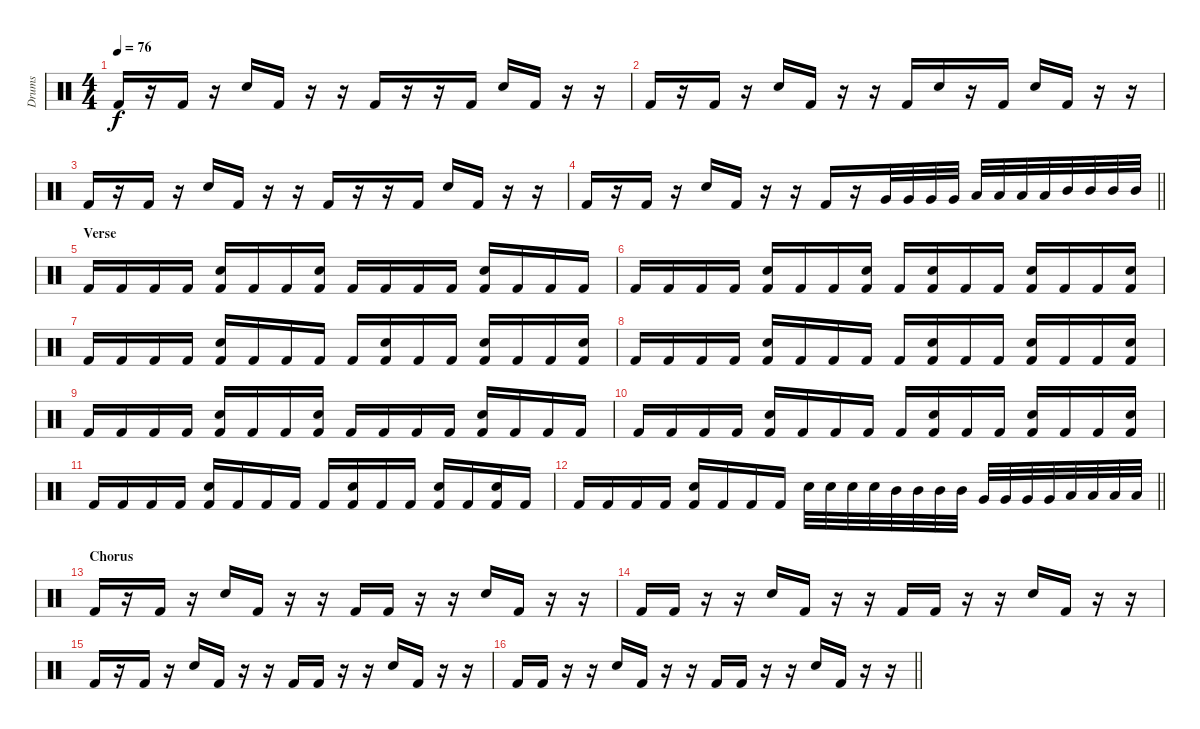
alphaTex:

\track ("Drums" "Drums") {instrument percussion}
\staff {score}
\articulation defaults
\ts (4 4)
\tempo 76
\clef neutral
\ks c "Kick (hit) 2".16{dy f}
r.16 "Kick (hit) 2".16 r.16 "Electric Snare (hit)".16 "Kick (hit) 2".16 r.16 r.16 "Kick (hit) 2".16 r.16 r.16 "Kick (hit) 2".16 "Electric Snare (hit)".16 "Kick (hit) 2".16 r.16 r.16 |
"Kick (hit) 2".16 r.16 "Kick (hit) 2".16 r.16 "Electric Snare (hit)".16 "Kick (hit) 2".16 r.16 r.16 "Kick (hit) 2".16 "Electric Snare (hit)".16 r.16 "Kick (hit) 2".16 "Electric Snare (hit)".16 "Kick (hit) 2".16 r.16 r.16 |
"Kick (hit) 2".16 r.16 "Kick (hit) 2".16 r.16 "Electric Snare (hit)".16 "Kick (hit) 2".16 r.16 r.16 "Kick (hit) 2".16 r.16 r.16 "Kick (hit) 2".16 "Electric Snare (hit)".16 "Kick (hit) 2".16 r.16 r.16 |
\barLineRight lightlight "Kick (hit) 2".16
r.16 "Kick (hit) 2".16 r.16 "Electric Snare (hit)".16 "Kick (hit) 2".16 r.16 r.16 "Kick (hit) 2".16 r.16 "Very Low Tom (hit)".32 "Very Low Tom (hit)".32 "Very Low Tom (hit)".32 "Very Low Tom (hit)".32 "Low Tom (hit)".32 "Low Tom (hit)".32 "Low Tom (hit)".32 "Low Tom (hit)".32 "Mid Tom (hit)".32 "Mid Tom (hit)".32 "Mid Tom (hit)".32 "Mid Tom (hit)".32 |
\section ("" "Verse")
"Kick (hit) 2".16 "Kick (hit) 2".16 "Kick (hit) 2".16 "Kick (hit) 2".16 ("Electric Snare (hit)" "Kick (hit) 2").16 "Kick (hit) 2".16 "Kick (hit) 2".16 ("Electric Snare (hit)" "Kick (hit) 2").16 "Kick (hit) 2".16 "Kick (hit) 2".16 "Kick (hit) 2".16 "Kick (hit) 2".16 ("Electric Snare (hit)" "Kick (hit) 2").16 "Kick (hit) 2".16 "Kick (hit) 2".16 "Kick (hit) 2".16 |
"Kick (hit) 2".16 "Kick (hit) 2".16 "Kick (hit) 2".16 "Kick (hit) 2".16 ("Electric Snare (hit)" "Kick (hit) 2").16 "Kick (hit) 2".16 "Kick (hit) 2".16 ("Electric Snare (hit)" "Kick (hit) 2").16 "Kick (hit) 2".16 ("Electric Snare (hit)" "Kick (hit) 2").16 "Kick (hit) 2".16 "Kick (hit) 2".16 ("Electric Snare (hit)" "Kick (hit) 2").16 "Kick (hit) 2".16 "Kick (hit) 2".16 ("Electric Snare (hit)" "Kick (hit) 2").16 |
"Kick (hit) 2".16 "Kick (hit) 2".16 "Kick (hit) 2".16 "Kick (hit) 2".16 ("Electric Snare (hit)" "Kick (hit) 2").16 "Kick (hit) 2".16 "Kick (hit) 2".16 "Kick (hit) 2".16 "Kick (hit) 2".16 ("Electric Snare (hit)" "Kick (hit) 2").16 "Kick (hit) 2".16 "Kick (hit) 2".16 ("Electric Snare (hit)" "Kick (hit) 2").16 "Kick (hit) 2".16 "Kick (hit) 2".16 ("Electric Snare (hit)" "Kick (hit) 2").16 |
"Kick (hit) 2".16 "Kick (hit) 2".16 "Kick (hit) 2".16 "Kick (hit) 2".16 ("Electric Snare (hit)" "Kick (hit) 2").16 "Kick (hit) 2".16 "Kick (hit) 2".16 "Kick (hit) 2".16 "Kick (hit) 2".16 ("Electric Snare (hit)" "Kick (hit) 2").16 "Kick (hit) 2".16 "Kick (hit) 2".16 ("Electric Snare (hit)" "Kick (hit) 2").16 "Kick (hit) 2".16 "Kick (hit) 2".16 ("Electric Snare (hit)" "Kick (hit) 2").16 |
"Kick (hit) 2".16 "Kick (hit) 2".16 "Kick (hit) 2".16 "Kick (hit) 2".16 ("Electric Snare (hit)" "Kick (hit) 2").16 "Kick (hit) 2".16 "Kick (hit) 2".16 ("Electric Snare (hit)" "Kick (hit) 2").16 "Kick (hit) 2".16 "Kick (hit) 2".16 "Kick (hit) 2".16 "Kick (hit) 2".16 ("Electric Snare (hit)" "Kick (hit) 2").16 "Kick (hit) 2".16 "Kick (hit) 2".16 "Kick (hit) 2".16 |
"Kick (hit) 2".16 "Kick (hit) 2".16 "Kick (hit) 2".16 "Kick (hit) 2".16 ("Electric Snare (hit)" "Kick (hit) 2").16 "Kick (hit) 2".16 "Kick (hit) 2".16 "Kick (hit) 2".16 "Kick (hit) 2".16 ("Electric Snare (hit)" "Kick (hit) 2").16 "Kick (hit) 2".16 "Kick (hit) 2".16 ("Electric Snare (hit)" "Kick (hit) 2").16 "Kick (hit) 2".16 "Kick (hit) 2".16 ("Electric Snare (hit)" "Kick (hit) 2").16 |
"Kick (hit) 2".16 "Kick (hit) 2".16 "Kick (hit) 2".16 "Kick (hit) 2".16 ("Electric Snare (hit)" "Kick (hit) 2").16 "Kick (hit) 2".16 "Kick (hit) 2".16 "Kick (hit) 2".16 "Kick (hit) 2".16 ("Electric Snare (hit)" "Kick (hit) 2").16 "Kick (hit) 2".16 "Kick (hit) 2".16 ("Electric Snare (hit)" "Kick (hit) 2").16 "Kick (hit) 2".16 ("Electric Snare (hit)" "Kick (hit) 2").16 "Kick (hit) 2".16 |
\barLineRight lightlight "Kick (hit) 2".16 "Kick (hit) 2".16 "Kick (hit) 2".16 "Kick (hit) 2".16
("Electric Snare (hit)" "Kick (hit) 2").16 "Kick (hit) 2".16 "Kick (hit) 2".16 "Kick (hit) 2".16 "Electric Snare (hit)".32 "Electric Snare (hit)".32 "Electric Snare (hit)".32 "Electric Snare (hit)".32 "Mid Tom (hit)".32 "Mid Tom (hit)".32 "Mid Tom (hit)".32 "Mid Tom (hit)".32 "Very Low Tom (hit)".32 "Very Low Tom (hit)".32 "Very Low Tom (hit)".32 "Very Low Tom (hit)".32 "Low Tom (hit)".32 "Low Tom (hit)".32 "Low Tom (hit)".32 "Low Tom (hit)".32 |
\section ("" "Chorus")
"Kick (hit) 2".16 r.16 "Kick (hit) 2".16 r.16 "Electric Snare (hit)".16 "Kick (hit) 2".16 r.16 r.16 "Kick (hit) 2".16 "Kick (hit) 2".16 r.16 r.16 "Electric Snare (hit)".16 "Kick (hit) 2".16 r.16 r.16 |
"Kick (hit) 2".16 "Kick (hit) 2".16 r.16 r.16 "Electric Snare (hit)".16 "Kick (hit) 2".16 r.16 r.16 "Kick (hit) 2".16 "Kick (hit) 2".16 r.16 r.16 "Electric Snare (hit)".16 "Kick (hit) 2".16 r.16 r.16 |
"Kick (hit) 2".16 r.16 "Kick (hit) 2".16 r.16 "Electric Snare (hit)".16 "Kick (hit) 2".16 r.16 r.16 "Kick (hit) 2".16 "Kick (hit) 2".16 r.16 r.16 "Electric Snare (hit)".16 "Kick (hit) 2".16 r.16 r.16 |
\barLineRight lightlight "Kick (hit) 2".16 "Kick (hit) 2".16
r.16 r.16 "Electric Snare (hit)".16 "Kick (hit) 2".16 r.16 r.16 "Kick (hit) 2".16 "Kick (hit) 2".16 r.16 r.16 "Electric Snare (hit)".16 "Kick (hit) 2".16 r.16 r.16
